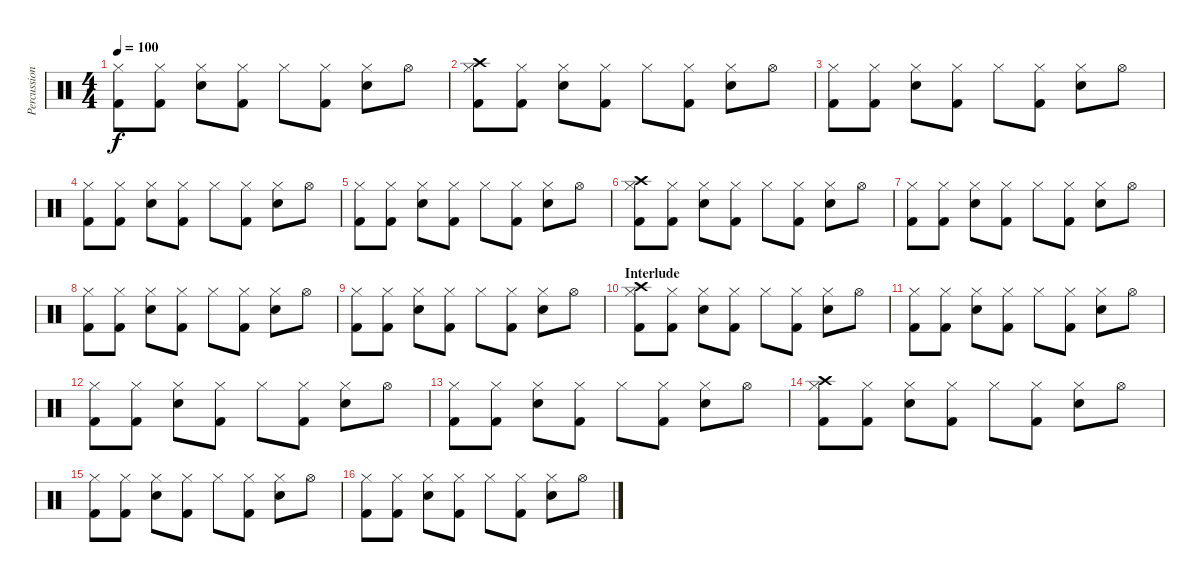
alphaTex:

\track ("Percussion" "Percussion") {instrument percussion}
\staff {score}
\articulation defaults
\ts (4 4)
\tempo 100
\clef neutral
\ks c
("Hi-Hat (closed)" "Kick (hit) 2").8{dy f} ("Hi-Hat (closed)" "Kick (hit) 2").8 ("Hi-Hat (closed)" "Electric Snare (hit)").8 ("Hi-Hat (closed)" "Kick (hit) 2").8 "Hi-Hat (closed)".8 ("Hi-Hat (closed)" "Kick (hit) 2").8 ("Hi-Hat (closed)" "Electric Snare (hit)").8 "Hi-Hat (open)".8 |
("Crash high (hit)" "Hi-Hat (closed)" "Kick (hit) 2").8 ("Hi-Hat (closed)" "Kick (hit) 2").8 ("Hi-Hat (closed)" "Electric Snare (hit)").8 ("Hi-Hat (closed)" "Kick (hit) 2").8 "Hi-Hat (closed)".8 ("Hi-Hat (closed)" "Kick (hit) 2").8 ("Hi-Hat (closed)" "Electric Snare (hit)").8 "Hi-Hat (open)".8 |
("Hi-Hat (closed)" "Kick (hit) 2").8 ("Hi-Hat (closed)" "Kick (hit) 2").8 ("Hi-Hat (closed)" "Electric Snare (hit)").8 ("Hi-Hat (closed)" "Kick (hit) 2").8 "Hi-Hat (closed)".8 ("Hi-Hat (closed)" "Kick (hit) 2").8 ("Hi-Hat (closed)" "Electric Snare (hit)").8 "Hi-Hat (open)".8 |
("Hi-Hat (closed)" "Kick (hit) 2").8 ("Hi-Hat (closed)" "Kick (hit) 2").8 ("Hi-Hat (closed)" "Electric Snare (hit)").8 ("Hi-Hat (closed)" "Kick (hit) 2").8 "Hi-Hat (closed)".8 ("Hi-Hat (closed)" "Kick (hit) 2").8 ("Hi-Hat (closed)" "Electric Snare (hit)").8 "Hi-Hat (open)".8 |
("Hi-Hat (closed)" "Kick (hit) 2").8 ("Hi-Hat (closed)" "Kick (hit) 2").8 ("Hi-Hat (closed)" "Electric Snare (hit)").8 ("Hi-Hat (closed)" "Kick (hit) 2").8 "Hi-Hat (closed)".8 ("Hi-Hat (closed)" "Kick (hit) 2").8 ("Hi-Hat (closed)" "Electric Snare (hit)").8 "Hi-Hat (open)".8 |
("Crash high (hit)" "Hi-Hat (closed)" "Kick (hit) 2").8 ("Hi-Hat (closed)" "Kick (hit) 2").8 ("Hi-Hat (closed)" "Electric Snare (hit)").8 ("Hi-Hat (closed)" "Kick (hit) 2").8 "Hi-Hat (closed)".8 ("Hi-Hat (closed)" "Kick (hit) 2").8 ("Hi-Hat (closed)" "Electric Snare (hit)").8 "Hi-Hat (open)".8 |
("Hi-Hat (closed)" "Kick (hit) 2").8 ("Hi-Hat (closed)" "Kick (hit) 2").8 ("Hi-Hat (closed)" "Electric Snare (hit)").8 ("Hi-Hat (closed)" "Kick (hit) 2").8 "Hi-Hat (closed)".8 ("Hi-Hat (closed)" "Kick (hit) 2").8 ("Hi-Hat (closed)" "Electric Snare (hit)").8 "Hi-Hat (open)".8 |
("Hi-Hat (closed)" "Kick (hit) 2").8 ("Hi-Hat (closed)" "Kick (hit) 2").8 ("Hi-Hat (closed)" "Electric Snare (hit)").8 ("Hi-Hat (closed)" "Kick (hit) 2").8 "Hi-Hat (closed)".8 ("Hi-Hat (closed)" "Kick (hit) 2").8 ("Hi-Hat (closed)" "Electric Snare (hit)").8 "Hi-Hat (open)".8 |
("Hi-Hat (closed)" "Kick (hit) 2").8 ("Hi-Hat (closed)" "Kick (hit) 2").8 ("Hi-Hat (closed)" "Electric Snare (hit)").8 ("Hi-Hat (closed)" "Kick (hit) 2").8 "Hi-Hat (closed)".8 ("Hi-Hat (closed)" "Kick (hit) 2").8 ("Hi-Hat (closed)" "Electric Snare (hit)").8 "Hi-Hat (open)".8 |
\section ("" "Interlude")
("Crash high (hit)" "Hi-Hat (closed)" "Kick (hit) 2").8 ("Hi-Hat (closed)" "Kick (hit) 2").8 ("Hi-Hat (closed)" "Electric Snare (hit)").8 ("Hi-Hat (closed)" "Kick (hit) 2").8 "Hi-Hat (closed)".8 ("Hi-Hat (closed)" "Kick (hit) 2").8 ("Hi-Hat (closed)" "Electric Snare (hit)").8 "Hi-Hat (open)".8 |
("Hi-Hat (closed)" "Kick (hit) 2").8 ("Hi-Hat (closed)" "Kick (hit) 2").8 ("Hi-Hat (closed)" "Electric Snare (hit)").8 ("Hi-Hat (closed)" "Kick (hit) 2").8 "Hi-Hat (closed)".8 ("Hi-Hat (closed)" "Kick (hit) 2").8 ("Hi-Hat (closed)" "Electric Snare (hit)").8 "Hi-Hat (open)".8 |
("Hi-Hat (closed)" "Kick (hit) 2").8 ("Hi-Hat (closed)" "Kick (hit) 2").8 ("Hi-Hat (closed)" "Electric Snare (hit)").8 ("Hi-Hat (closed)" "Kick (hit) 2").8 "Hi-Hat (closed)".8 ("Hi-Hat (closed)" "Kick (hit) 2").8 ("Hi-Hat (closed)" "Electric Snare (hit)").8 "Hi-Hat (open)".8 |
("Hi-Hat (closed)" "Kick (hit) 2").8 ("Hi-Hat (closed)" "Kick (hit) 2").8 ("Hi-Hat (closed)" "Electric Snare (hit)").8 ("Hi-Hat (closed)" "Kick (hit) 2").8 "Hi-Hat (closed)".8 ("Hi-Hat (closed)" "Kick (hit) 2").8 ("Hi-Hat (closed)" "Electric Snare (hit)").8 "Hi-Hat (open)".8 |
("Crash high (hit)" "Hi-Hat (closed)" "Kick (hit) 2").8 ("Hi-Hat (closed)" "Kick (hit) 2").8 ("Hi-Hat (closed)" "Electric Snare (hit)").8 ("Hi-Hat (closed)" "Kick (hit) 2").8 "Hi-Hat (closed)".8 ("Hi-Hat (closed)" "Kick (hit) 2").8 ("Hi-Hat (closed)" "Electric Snare (hit)").8 "Hi-Hat (open)".8 |
("Hi-Hat (closed)" "Kick (hit) 2").8 ("Hi-Hat (closed)" "Kick (hit) 2").8 ("Hi-Hat (closed)" "Electric Snare (hit)").8 ("Hi-Hat (closed)" "Kick (hit) 2").8 "Hi-Hat (closed)".8 ("Hi-Hat (closed)" "Kick (hit) 2").8 ("Hi-Hat (closed)" "Electric Snare (hit)").8 "Hi-Hat (open)".8 |
("Hi-Hat (closed)" "Kick (hit) 2").8 ("Hi-Hat (closed)" "Kick (hit) 2").8 ("Hi-Hat (closed)" "Electric Snare (hit)").8 ("Hi-Hat (closed)" "Kick (hit) 2").8 "Hi-Hat (closed)".8 ("Hi-Hat (closed)" "Kick (hit) 2").8 ("Hi-Hat (closed)" "Electric Snare (hit)").8 "Hi-Hat (open)".8
